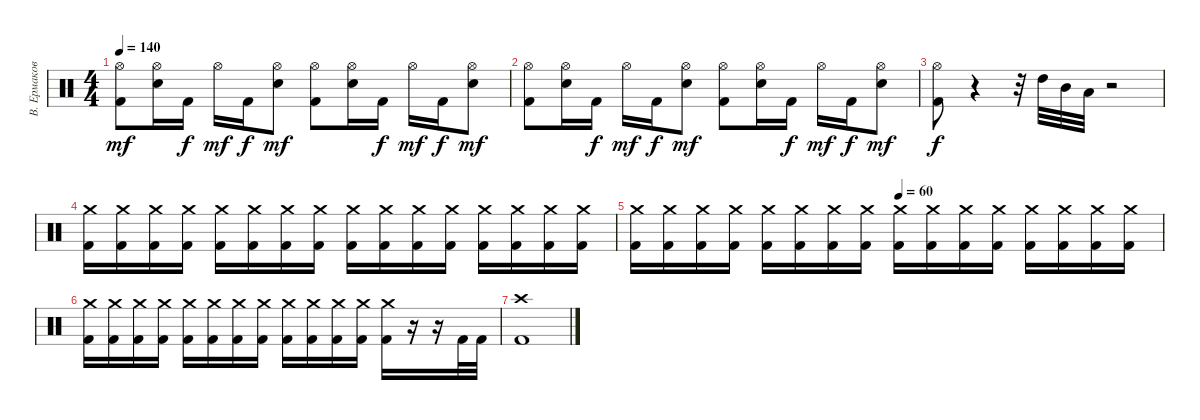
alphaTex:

\track ("В. Ермаков" "В. Ермаков") {instrument percussion}
\staff {score}
\articulation defaults
\ts (4 4)
\tempo 140
\clef neutral
\ks c
("Hi-Hat (open)" "Kick (hit) 2").8{dy mf} ("Hi-Hat (open)" "Electric Snare (hit)").16 "Kick (hit) 2".16{dy f} "Hi-Hat (open)".16{dy mf} "Kick (hit) 2".16{dy f} ("Hi-Hat (open)" "Electric Snare (hit)").8{dy mf} ("Hi-Hat (open)" "Kick (hit) 2").8 ("Hi-Hat (open)" "Electric Snare (hit)").16 "Kick (hit) 2".16{dy f} "Hi-Hat (open)".16{dy mf} "Kick (hit) 2".16{dy f} ("Hi-Hat (open)" "Electric Snare (hit)").8{dy mf} |
("Hi-Hat (open)" "Kick (hit) 2").8 ("Hi-Hat (open)" "Electric Snare (hit)").16 "Kick (hit) 2".16{dy f} "Hi-Hat (open)".16{dy mf} "Kick (hit) 2".16{dy f} ("Hi-Hat (open)" "Electric Snare (hit)").8{dy mf} ("Hi-Hat (open)" "Kick (hit) 2").8 ("Hi-Hat (open)" "Electric Snare (hit)").16 "Kick (hit) 2".16{dy f} "Hi-Hat (open)".16{dy mf} "Kick (hit) 2".16{dy f} ("Hi-Hat (open)" "Electric Snare (hit)").8{dy mf} |
("Hi-Hat (open)" "Kick (hit) 2").8{dy f} r.4 r.32 "High Tom (hit)".32 "Mid Tom (hit)".32 "Low Tom (hit)".32 r.2 |
("Crash medium (hit)" "Kick (hit) 2").16 ("Crash medium (hit)" "Kick (hit) 2").16 ("Crash medium (hit)" "Kick (hit) 2").16 ("Crash medium (hit)" "Kick (hit) 2").16 ("Crash medium (hit)" "Kick (hit) 2").16 ("Crash medium (hit)" "Kick (hit) 2").16 ("Crash medium (hit)" "Kick (hit) 2").16 ("Crash medium (hit)" "Kick (hit) 2").16 ("Crash medium (hit)" "Kick (hit) 2").16 ("Crash medium (hit)" "Kick (hit) 2").16 ("Crash medium (hit)" "Kick (hit) 2").16 ("Crash medium (hit)" "Kick (hit) 2").16 ("Crash medium (hit)" "Kick (hit) 2").16 ("Crash medium (hit)" "Kick (hit) 2").16 ("Crash medium (hit)" "Kick (hit) 2").16 ("Crash medium (hit)" "Kick (hit) 2").16 |
\tempo (60 0.5)
("Crash medium (hit)" "Kick (hit) 2").16 ("Crash medium (hit)" "Kick (hit) 2").16 ("Crash medium (hit)" "Kick (hit) 2").16 ("Crash medium (hit)" "Kick (hit) 2").16 ("Crash medium (hit)" "Kick (hit) 2").16 ("Crash medium (hit)" "Kick (hit) 2").16 ("Crash medium (hit)" "Kick (hit) 2").16 ("Crash medium (hit)" "Kick (hit) 2").16 ("Crash medium (hit)" "Kick (hit) 2").16 ("Crash medium (hit)" "Kick (hit) 2").16 ("Crash medium (hit)" "Kick (hit) 2").16 ("Crash medium (hit)" "Kick (hit) 2").16 ("Crash medium (hit)" "Kick (hit) 2").16 ("Crash medium (hit)" "Kick (hit) 2").16 ("Crash medium (hit)" "Kick (hit) 2").16 ("Crash medium (hit)" "Kick (hit) 2").16 |
("Crash medium (hit)" "Kick (hit) 2").16 ("Crash medium (hit)" "Kick (hit) 2").16 ("Crash medium (hit)" "Kick (hit) 2").16 ("Crash medium (hit)" "Kick (hit) 2").16 ("Crash medium (hit)" "Kick (hit) 2").16 ("Crash medium (hit)" "Kick (hit) 2").16 ("Crash medium (hit)" "Kick (hit) 2").16 ("Crash medium (hit)" "Kick (hit) 2").16 ("Crash medium (hit)" "Kick (hit) 2").16 ("Crash medium (hit)" "Kick (hit) 2").16 ("Crash medium (hit)" "Kick (hit) 2").16 ("Crash medium (hit)" "Kick (hit) 2").16 ("Crash medium (hit)" "Kick (hit) 2").16 r.16 r.16 "Kick (hit) 2".32 "Kick (hit) 2".32 |
("Crash high (hit)" "Kick (hit) 2").1
